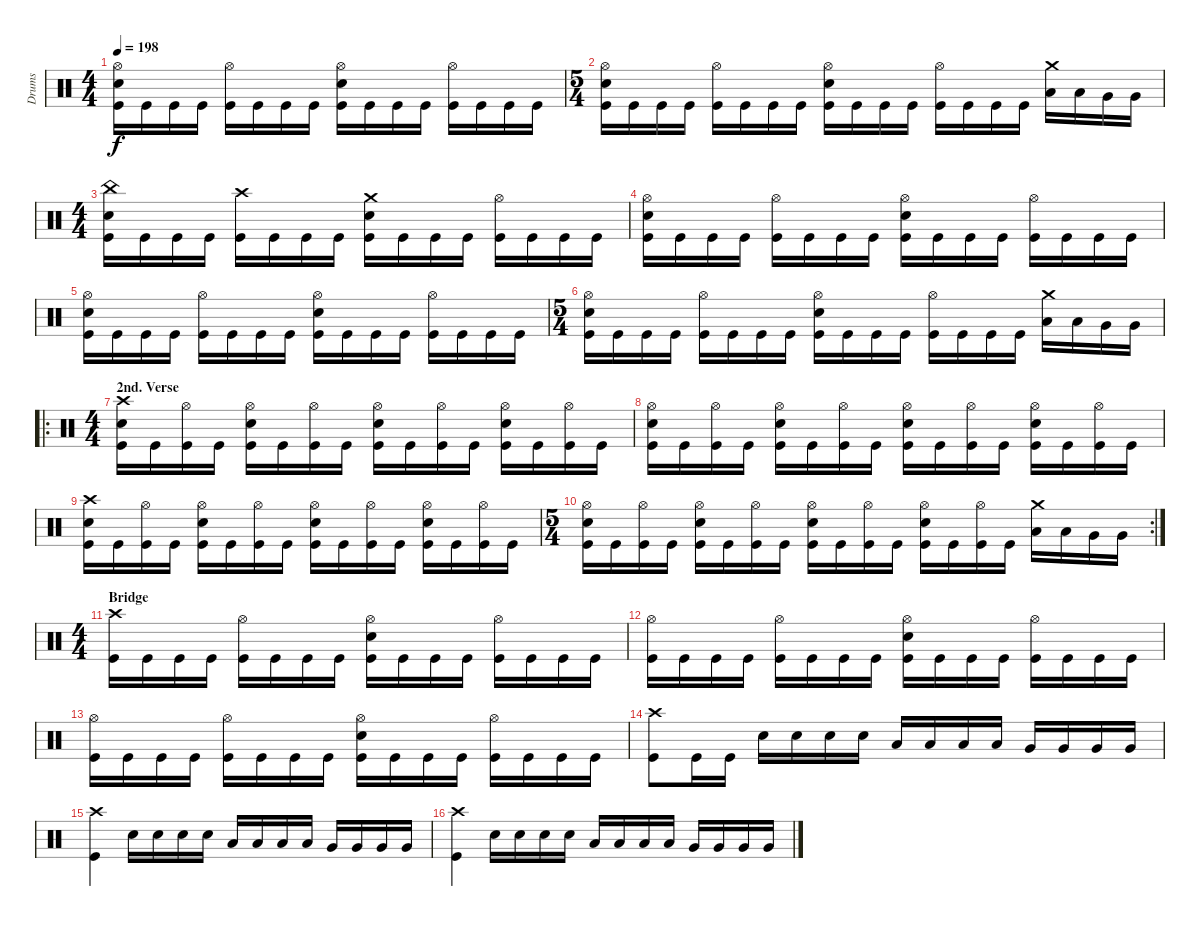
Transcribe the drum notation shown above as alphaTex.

\track ("Drums" "Drums") {instrument percussion}
\staff {score}
\articulation defaults
\ts (4 4)
\tempo 198
\clef neutral
\ks c
("Hi-Hat (open)" "Snare (hit) 2" "Kick (hit)").16{dy f} "Kick (hit)".16 "Kick (hit)".16 "Kick (hit)".16 ("Hi-Hat (open)" "Kick (hit)").16 "Kick (hit)".16 "Kick (hit)".16 "Kick (hit)".16 ("Hi-Hat (open)" "Snare (hit) 2" "Kick (hit)").16 "Kick (hit)".16 "Kick (hit)".16 "Kick (hit)".16 ("Hi-Hat (open)" "Kick (hit)").16 "Kick (hit)".16 "Kick (hit)".16 "Kick (hit)".16 |
\ts (5 4)
("Hi-Hat (open)" "Snare (hit) 2" "Kick (hit)").16 "Kick (hit)".16 "Kick (hit)".16 "Kick (hit)".16 ("Hi-Hat (open)" "Kick (hit)").16 "Kick (hit)".16 "Kick (hit)".16 "Kick (hit)".16 ("Hi-Hat (open)" "Snare (hit) 2" "Kick (hit)").16 "Kick (hit)".16 "Kick (hit)".16 "Kick (hit)".16 ("Hi-Hat (open)" "Kick (hit)").16 "Kick (hit)".16 "Kick (hit)".16 "Kick (hit)".16 ("Crash medium (hit)" "Low Tom (hit)").16 "Low Tom (hit)".16 "Very Low Tom (hit)".16 "Very Low Tom (hit)".16 |
\ts (4 4)
("China (hit)" "Snare (hit) 2" "Kick (hit)").16 "Kick (hit)".16 "Kick (hit)".16 "Kick (hit)".16 ("Crash high (hit)" "Kick (hit)").16 "Kick (hit)".16 "Kick (hit)".16 "Kick (hit)".16 ("Crash medium (hit)" "Snare (hit) 2" "Kick (hit)").16 "Kick (hit)".16 "Kick (hit)".16 "Kick (hit)".16 ("Hi-Hat (open)" "Kick (hit)").16 "Kick (hit)".16 "Kick (hit)".16 "Kick (hit)".16 |
("Hi-Hat (open)" "Snare (hit) 2" "Kick (hit)").16 "Kick (hit)".16 "Kick (hit)".16 "Kick (hit)".16 ("Hi-Hat (open)" "Kick (hit)").16 "Kick (hit)".16 "Kick (hit)".16 "Kick (hit)".16 ("Hi-Hat (open)" "Snare (hit) 2" "Kick (hit)").16 "Kick (hit)".16 "Kick (hit)".16 "Kick (hit)".16 ("Hi-Hat (open)" "Kick (hit)").16 "Kick (hit)".16 "Kick (hit)".16 "Kick (hit)".16 |
("Hi-Hat (open)" "Snare (hit) 2" "Kick (hit)").16 "Kick (hit)".16 "Kick (hit)".16 "Kick (hit)".16 ("Hi-Hat (open)" "Kick (hit)").16 "Kick (hit)".16 "Kick (hit)".16 "Kick (hit)".16 ("Hi-Hat (open)" "Snare (hit) 2" "Kick (hit)").16 "Kick (hit)".16 "Kick (hit)".16 "Kick (hit)".16 ("Hi-Hat (open)" "Kick (hit)").16 "Kick (hit)".16 "Kick (hit)".16 "Kick (hit)".16 |
\ts (5 4)
("Hi-Hat (open)" "Snare (hit) 2" "Kick (hit)").16 "Kick (hit)".16 "Kick (hit)".16 "Kick (hit)".16 ("Hi-Hat (open)" "Kick (hit)").16 "Kick (hit)".16 "Kick (hit)".16 "Kick (hit)".16 ("Hi-Hat (open)" "Snare (hit) 2" "Kick (hit)").16 "Kick (hit)".16 "Kick (hit)".16 "Kick (hit)".16 ("Hi-Hat (open)" "Kick (hit)").16 "Kick (hit)".16 "Kick (hit)".16 "Kick (hit)".16 ("Crash medium (hit)" "Low Tom (hit)").16 "Low Tom (hit)".16 "Very Low Tom (hit)".16 "Very Low Tom (hit)".16 |
\ro
\ts (4 4)
\section ("" "2nd. Verse")
("Crash high (hit)" "Snare (hit) 2" "Kick (hit)").16 "Kick (hit)".16 ("Hi-Hat (open)" "Kick (hit)").16 "Kick (hit)".16 ("Hi-Hat (open)" "Snare (hit) 2" "Kick (hit)").16 "Kick (hit)".16 ("Hi-Hat (open)" "Kick (hit)").16 "Kick (hit)".16 ("Hi-Hat (open)" "Snare (hit) 2" "Kick (hit)").16 "Kick (hit)".16 ("Hi-Hat (open)" "Kick (hit)").16 "Kick (hit)".16 ("Hi-Hat (open)" "Snare (hit) 2" "Kick (hit)").16 "Kick (hit)".16 ("Hi-Hat (open)" "Kick (hit)").16 "Kick (hit)".16 |
("Hi-Hat (open)" "Snare (hit) 2" "Kick (hit)").16 "Kick (hit)".16 ("Hi-Hat (open)" "Kick (hit)").16 "Kick (hit)".16 ("Hi-Hat (open)" "Snare (hit) 2" "Kick (hit)").16 "Kick (hit)".16 ("Hi-Hat (open)" "Kick (hit)").16 "Kick (hit)".16 ("Hi-Hat (open)" "Snare (hit) 2" "Kick (hit)").16 "Kick (hit)".16 ("Hi-Hat (open)" "Kick (hit)").16 "Kick (hit)".16 ("Hi-Hat (open)" "Snare (hit) 2" "Kick (hit)").16 "Kick (hit)".16 ("Hi-Hat (open)" "Kick (hit)").16 "Kick (hit)".16 |
("Crash high (hit)" "Snare (hit) 2" "Kick (hit)").16 "Kick (hit)".16 ("Hi-Hat (open)" "Kick (hit)").16 "Kick (hit)".16 ("Hi-Hat (open)" "Snare (hit) 2" "Kick (hit)").16 "Kick (hit)".16 ("Hi-Hat (open)" "Kick (hit)").16 "Kick (hit)".16 ("Hi-Hat (open)" "Snare (hit) 2" "Kick (hit)").16 "Kick (hit)".16 ("Hi-Hat (open)" "Kick (hit)").16 "Kick (hit)".16 ("Hi-Hat (open)" "Snare (hit) 2" "Kick (hit)").16 "Kick (hit)".16 ("Hi-Hat (open)" "Kick (hit)").16 "Kick (hit)".16 |
\rc 2
\ts (5 4)
("Hi-Hat (open)" "Snare (hit) 2" "Kick (hit)").16 "Kick (hit)".16 ("Hi-Hat (open)" "Kick (hit)").16 "Kick (hit)".16 ("Hi-Hat (open)" "Snare (hit) 2" "Kick (hit)").16 "Kick (hit)".16 ("Hi-Hat (open)" "Kick (hit)").16 "Kick (hit)".16 ("Hi-Hat (open)" "Snare (hit) 2" "Kick (hit)").16 "Kick (hit)".16 ("Hi-Hat (open)" "Kick (hit)").16 "Kick (hit)".16 ("Hi-Hat (open)" "Snare (hit) 2" "Kick (hit)").16 "Kick (hit)".16 ("Hi-Hat (open)" "Kick (hit)").16 "Kick (hit)".16 ("Crash medium (hit)" "Low Tom (hit)").16 "Low Tom (hit)".16 "Very Low Tom (hit)".16 "Very Low Tom (hit)".16 |
\ts (4 4)
\section ("" "Bridge")
("Crash high (hit)" "Kick (hit)").16 "Kick (hit)".16 "Kick (hit)".16 "Kick (hit)".16 ("Hi-Hat (open)" "Kick (hit)").16 "Kick (hit)".16 "Kick (hit)".16 "Kick (hit)".16 ("Hi-Hat (open)" "Snare (hit) 2" "Kick (hit)").16 "Kick (hit)".16 "Kick (hit)".16 "Kick (hit)".16 ("Hi-Hat (open)" "Kick (hit)").16 "Kick (hit)".16 "Kick (hit)".16 "Kick (hit)".16 |
("Hi-Hat (open)" "Kick (hit)").16 "Kick (hit)".16 "Kick (hit)".16 "Kick (hit)".16 ("Hi-Hat (open)" "Kick (hit)").16 "Kick (hit)".16 "Kick (hit)".16 "Kick (hit)".16 ("Hi-Hat (open)" "Snare (hit) 2" "Kick (hit)").16 "Kick (hit)".16 "Kick (hit)".16 "Kick (hit)".16 ("Hi-Hat (open)" "Kick (hit)").16 "Kick (hit)".16 "Kick (hit)".16 "Kick (hit)".16 |
("Hi-Hat (open)" "Kick (hit)").16 "Kick (hit)".16 "Kick (hit)".16 "Kick (hit)".16 ("Hi-Hat (open)" "Kick (hit)").16 "Kick (hit)".16 "Kick (hit)".16 "Kick (hit)".16 ("Hi-Hat (open)" "Snare (hit) 2" "Kick (hit)").16 "Kick (hit)".16 "Kick (hit)".16 "Kick (hit)".16 ("Hi-Hat (open)" "Kick (hit)").16 "Kick (hit)".16 "Kick (hit)".16 "Kick (hit)".16 |
("Crash high (hit)" "Kick (hit)").8 "Kick (hit)".16 "Kick (hit)".16 "Snare (hit) 2".16 "Snare (hit) 2".16 "Snare (hit) 2".16 "Snare (hit) 2".16 "Low Tom (hit)".16 "Low Tom (hit)".16 "Low Tom (hit)".16 "Low Tom (hit)".16 "Very Low Tom (hit)".16 "Very Low Tom (hit)".16 "Very Low Tom (hit)".16 "Very Low Tom (hit)".16 |
("Crash high (hit)" "Kick (hit)").4 "Snare (hit) 2".16 "Snare (hit) 2".16 "Snare (hit) 2".16 "Snare (hit) 2".16 "Low Tom (hit)".16 "Low Tom (hit)".16 "Low Tom (hit)".16 "Low Tom (hit)".16 "Very Low Tom (hit)".16 "Very Low Tom (hit)".16 "Very Low Tom (hit)".16 "Very Low Tom (hit)".16 |
("Crash high (hit)" "Kick (hit)").4 "Snare (hit) 2".16 "Snare (hit) 2".16 "Snare (hit) 2".16 "Snare (hit) 2".16 "Low Tom (hit)".16 "Low Tom (hit)".16 "Low Tom (hit)".16 "Low Tom (hit)".16 "Very Low Tom (hit)".16 "Very Low Tom (hit)".16 "Very Low Tom (hit)".16 "Very Low Tom (hit)".16
